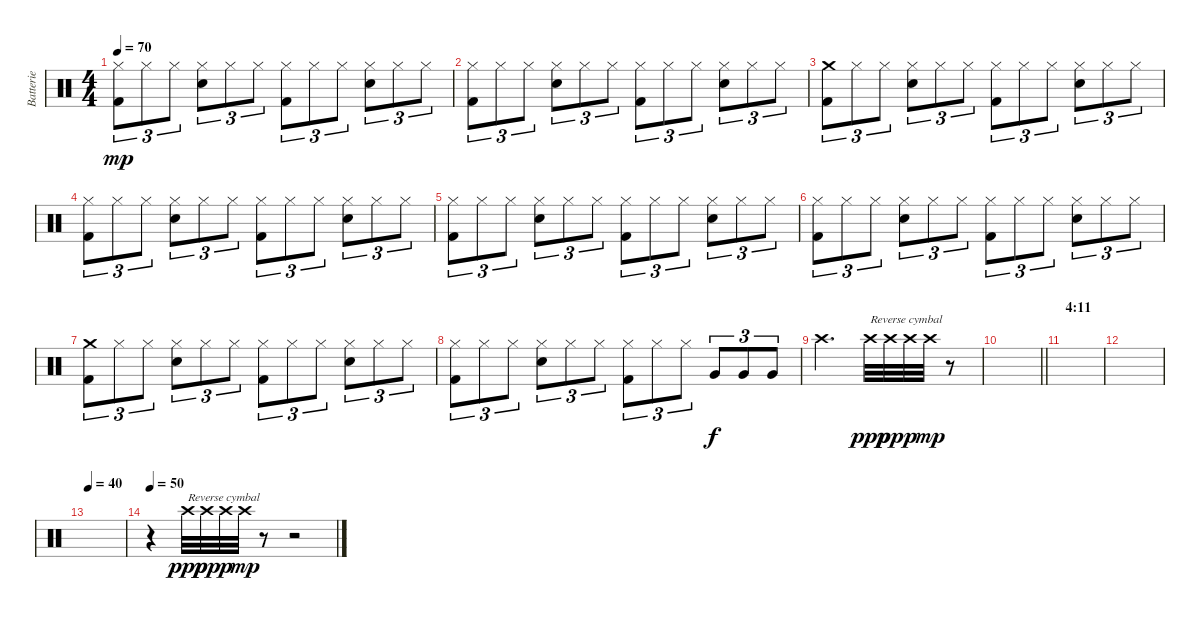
\track ("Batterie" "Batterie") {instrument percussion}
\staff {score}
\articulation defaults
\ts (4 4)
\tempo 70
\clef neutral
\ks c
("Hi-Hat (closed)" "Kick (hit) 2").8{tu (3 2) dy mp} "Hi-Hat (closed)".8{tu (3 2)} "Hi-Hat (closed)".8{tu (3 2)} ("Hi-Hat (closed)" "Snare (hit) 2").8{tu (3 2)} "Hi-Hat (closed)".8{tu (3 2)} "Hi-Hat (closed)".8{tu (3 2)} ("Hi-Hat (closed)" "Kick (hit) 2").8{tu (3 2)} "Hi-Hat (closed)".8{tu (3 2)} "Hi-Hat (closed)".8{tu (3 2)} ("Hi-Hat (closed)" "Snare (hit) 2").8{tu (3 2)} "Hi-Hat (closed)".8{tu (3 2)} "Hi-Hat (closed)".8{tu (3 2)} |
("Hi-Hat (closed)" "Kick (hit) 2").8{tu (3 2)} "Hi-Hat (closed)".8{tu (3 2)} "Hi-Hat (closed)".8{tu (3 2)} ("Hi-Hat (closed)" "Snare (hit) 2").8{tu (3 2)} "Hi-Hat (closed)".8{tu (3 2)} "Hi-Hat (closed)".8{tu (3 2)} ("Hi-Hat (closed)" "Kick (hit) 2").8{tu (3 2)} "Hi-Hat (closed)".8{tu (3 2)} "Hi-Hat (closed)".8{tu (3 2)} ("Hi-Hat (closed)" "Snare (hit) 2").8{tu (3 2)} "Hi-Hat (closed)".8{tu (3 2)} "Hi-Hat (closed)".8{tu (3 2)} |
("Crash medium (hit)" "Kick (hit) 2").8{tu (3 2)} "Hi-Hat (closed)".8{tu (3 2)} "Hi-Hat (closed)".8{tu (3 2)} ("Hi-Hat (closed)" "Snare (hit) 2").8{tu (3 2)} "Hi-Hat (closed)".8{tu (3 2)} "Hi-Hat (closed)".8{tu (3 2)} ("Hi-Hat (closed)" "Kick (hit) 2").8{tu (3 2)} "Hi-Hat (closed)".8{tu (3 2)} "Hi-Hat (closed)".8{tu (3 2)} ("Hi-Hat (closed)" "Snare (hit) 2").8{tu (3 2)} "Hi-Hat (closed)".8{tu (3 2)} "Hi-Hat (closed)".8{tu (3 2)} |
("Hi-Hat (closed)" "Kick (hit) 2").8{tu (3 2)} "Hi-Hat (closed)".8{tu (3 2)} "Hi-Hat (closed)".8{tu (3 2)} ("Hi-Hat (closed)" "Snare (hit) 2").8{tu (3 2)} "Hi-Hat (closed)".8{tu (3 2)} "Hi-Hat (closed)".8{tu (3 2)} ("Hi-Hat (closed)" "Kick (hit) 2").8{tu (3 2)} "Hi-Hat (closed)".8{tu (3 2)} "Hi-Hat (closed)".8{tu (3 2)} ("Hi-Hat (closed)" "Snare (hit) 2").8{tu (3 2)} "Hi-Hat (closed)".8{tu (3 2)} "Hi-Hat (closed)".8{tu (3 2)} |
("Hi-Hat (closed)" "Kick (hit) 2").8{tu (3 2)} "Hi-Hat (closed)".8{tu (3 2)} "Hi-Hat (closed)".8{tu (3 2)} ("Hi-Hat (closed)" "Snare (hit) 2").8{tu (3 2)} "Hi-Hat (closed)".8{tu (3 2)} "Hi-Hat (closed)".8{tu (3 2)} ("Hi-Hat (closed)" "Kick (hit) 2").8{tu (3 2)} "Hi-Hat (closed)".8{tu (3 2)} "Hi-Hat (closed)".8{tu (3 2)} ("Hi-Hat (closed)" "Snare (hit) 2").8{tu (3 2)} "Hi-Hat (closed)".8{tu (3 2)} "Hi-Hat (closed)".8{tu (3 2)} |
("Hi-Hat (closed)" "Kick (hit) 2").8{tu (3 2)} "Hi-Hat (closed)".8{tu (3 2)} "Hi-Hat (closed)".8{tu (3 2)} ("Hi-Hat (closed)" "Snare (hit) 2").8{tu (3 2)} "Hi-Hat (closed)".8{tu (3 2)} "Hi-Hat (closed)".8{tu (3 2)} ("Hi-Hat (closed)" "Kick (hit) 2").8{tu (3 2)} "Hi-Hat (closed)".8{tu (3 2)} "Hi-Hat (closed)".8{tu (3 2)} ("Hi-Hat (closed)" "Snare (hit) 2").8{tu (3 2)} "Hi-Hat (closed)".8{tu (3 2)} "Hi-Hat (closed)".8{tu (3 2)} |
("Crash medium (hit)" "Kick (hit) 2").8{tu (3 2)} "Hi-Hat (closed)".8{tu (3 2)} "Hi-Hat (closed)".8{tu (3 2)} ("Hi-Hat (closed)" "Snare (hit) 2").8{tu (3 2)} "Hi-Hat (closed)".8{tu (3 2)} "Hi-Hat (closed)".8{tu (3 2)} ("Hi-Hat (closed)" "Kick (hit) 2").8{tu (3 2)} "Hi-Hat (closed)".8{tu (3 2)} "Hi-Hat (closed)".8{tu (3 2)} ("Hi-Hat (closed)" "Snare (hit) 2").8{tu (3 2)} "Hi-Hat (closed)".8{tu (3 2)} "Hi-Hat (closed)".8{tu (3 2)} |
("Hi-Hat (closed)" "Kick (hit) 2").8{tu (3 2)} "Hi-Hat (closed)".8{tu (3 2)} "Hi-Hat (closed)".8{tu (3 2)} ("Hi-Hat (closed)" "Snare (hit) 2").8{tu (3 2)} "Hi-Hat (closed)".8{tu (3 2)} "Hi-Hat (closed)".8{tu (3 2)} ("Hi-Hat (closed)" "Kick (hit) 2").8{tu (3 2)} "Hi-Hat (closed)".8{tu (3 2)} "Hi-Hat (closed)".8{tu (3 2)} "Very Low Tom (hit)".8{tu (3 2) dy f} "Very Low Tom (hit)".8{tu (3 2)} "Very Low Tom (hit)".8{tu (3 2)} |
"Crash high (hit)".2{d} "Crash high (hit)".32{txt "Reverse cymbal" dy ppp} "Crash high (hit)".32{dy pp} "Crash high (hit)".32{dy p} "Crash high (hit)".32{dy mp} r.8 |
\barLineRight lightlight
|
\section ("" "4:11")
|
|
\tempo 40
|
\tempo 50
r.4 "Crash high (hit)".32{txt "Reverse cymbal" dy ppp} "Crash high (hit)".32{dy pp} "Crash high (hit)".32{dy p} "Crash high (hit)".32{dy mp} r.8 r.2
